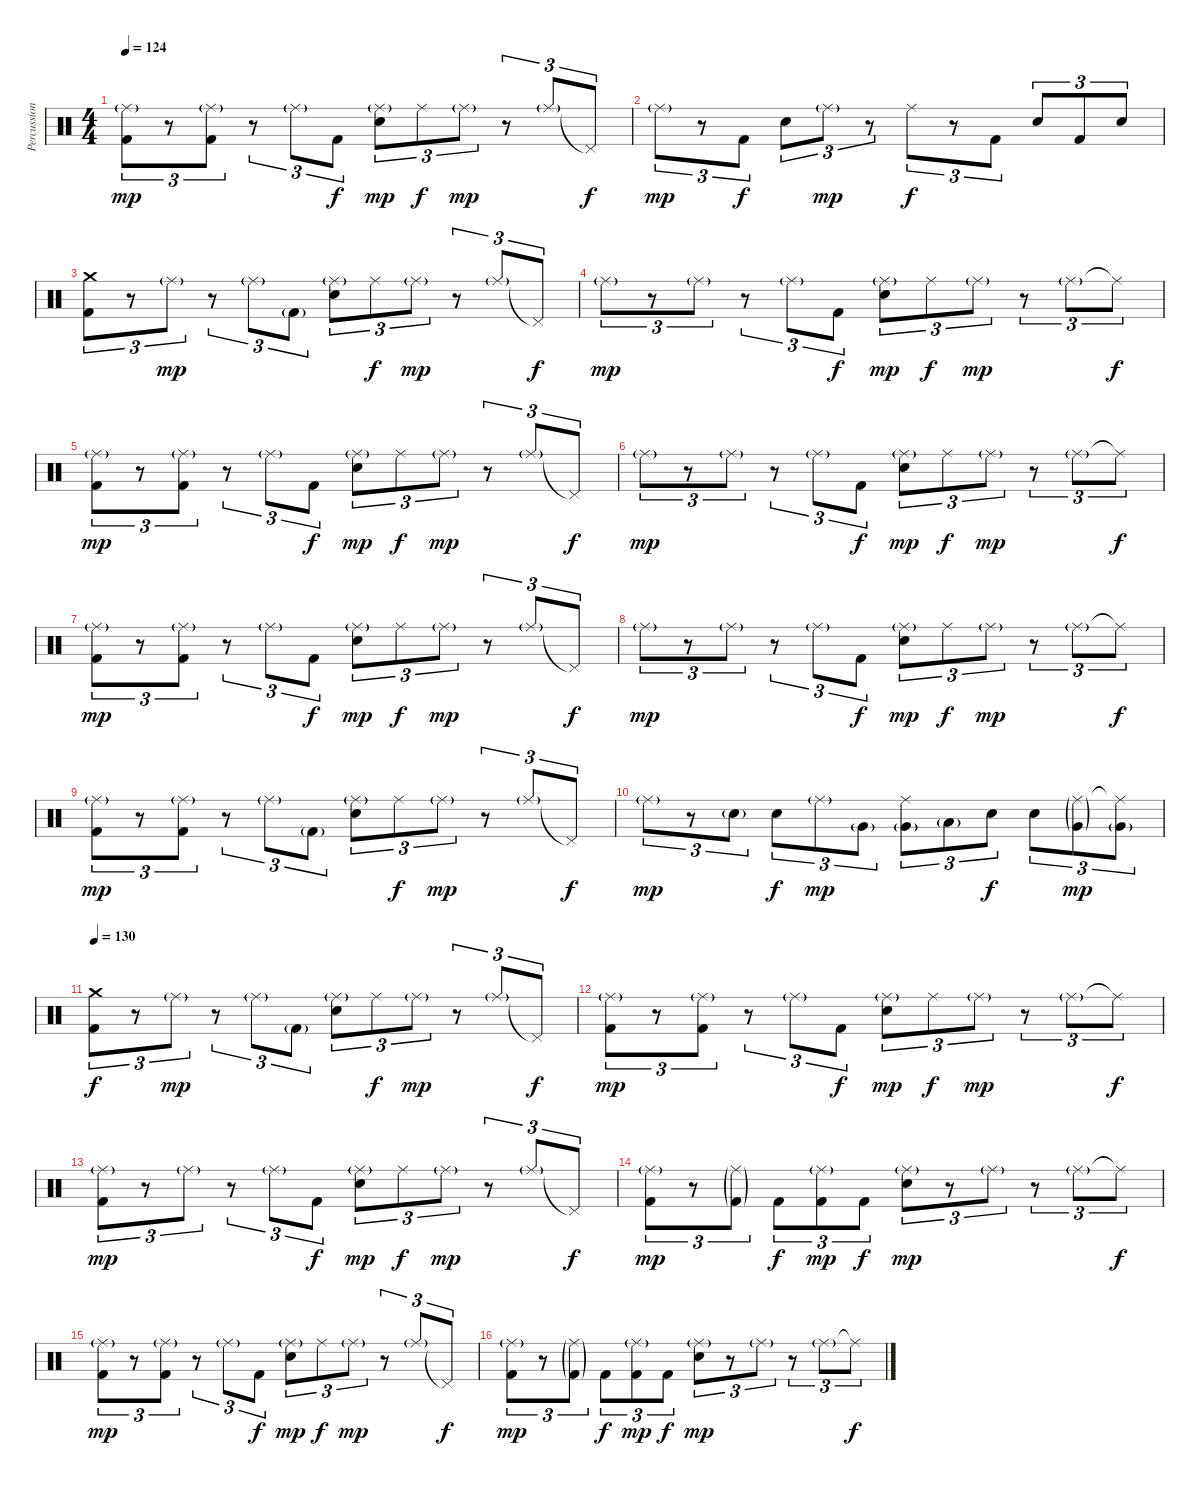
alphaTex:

\track ("Percussions" "Percussion") {instrument percussion}
\staff {score}
\articulation defaults
\ts (4 4)
\tempo 124
\clef neutral
\ks c
("Ride (middle)"{g} "Kick (hit) 2").8{tu (3 2) dy mp} r.8{tu (3 2)} ("Ride (middle)"{g} "Kick (hit) 2").8{tu (3 2)} r.8{tu (3 2)} "Ride (middle)"{g}.8{tu (3 2)} "Kick (hit) 2".8{tu (3 2) dy f} ("Ride (middle)"{g} "Electric Snare (hit)").8{tu (3 2) dy mp} "Ride (middle)".8{tu (3 2) dy f} "Ride (middle)"{g}.8{tu (3 2) dy mp} r.8{tu (3 2)} "Ride (middle)"{g}.8{tu (3 2)} "Pedal Hi-Hat (hit)"{t}.8{tu (3 2) dy f} |
"Ride (middle)"{g}.8{tu (3 2) dy mp} r.8{tu (3 2)} "Kick (hit) 2".8{tu (3 2) dy f} "Electric Snare (hit)".8{tu (3 2)} "Ride (middle)"{g}.8{tu (3 2) dy mp} r.8{tu (3 2)} "Ride (middle)".8{tu (3 2) dy f} r.8{tu (3 2)} "Kick (hit) 2".8{tu (3 2)} "Electric Snare (hit)".8{tu (3 2)} "Kick (hit) 2".8{tu (3 2)} "Electric Snare (hit)".8{tu (3 2)} |
("Crash medium (hit)" "Kick (hit) 2").8{tu (3 2)} r.8{tu (3 2)} "Ride (middle)"{g}.8{tu (3 2) dy mp} r.8{tu (3 2)} "Ride (middle)"{g}.8{tu (3 2)} "Kick (hit) 2"{g}.8{tu (3 2)} ("Ride (middle)"{g} "Electric Snare (hit)").8{tu (3 2)} "Ride (middle)".8{tu (3 2) dy f} "Ride (middle)"{g}.8{tu (3 2) dy mp} r.8{tu (3 2)} "Ride (middle)"{g}.8{tu (3 2)} "Pedal Hi-Hat (hit)"{t}.8{tu (3 2) dy f} |
"Ride (middle)"{g}.8{tu (3 2) dy mp} r.8{tu (3 2)} "Ride (middle)"{g}.8{tu (3 2)} r.8{tu (3 2)} "Ride (middle)"{g}.8{tu (3 2)} "Kick (hit) 2".8{tu (3 2) dy f} ("Ride (middle)"{g} "Electric Snare (hit)").8{tu (3 2) dy mp} "Ride (middle)".8{tu (3 2) dy f} "Ride (middle)"{g}.8{tu (3 2) dy mp} r.8{tu (3 2)} "Ride (middle)"{g}.8{tu (3 2)} "Ride (middle)"{t}.8{tu (3 2) dy f} |
("Ride (middle)"{g} "Kick (hit) 2").8{tu (3 2) dy mp} r.8{tu (3 2)} ("Ride (middle)"{g} "Kick (hit) 2").8{tu (3 2)} r.8{tu (3 2)} "Ride (middle)"{g}.8{tu (3 2)} "Kick (hit) 2".8{tu (3 2) dy f} ("Ride (middle)"{g} "Electric Snare (hit)").8{tu (3 2) dy mp} "Ride (middle)".8{tu (3 2) dy f} "Ride (middle)"{g}.8{tu (3 2) dy mp} r.8{tu (3 2)} "Ride (middle)"{g}.8{tu (3 2)} "Pedal Hi-Hat (hit)"{t}.8{tu (3 2) dy f} |
"Ride (middle)"{g}.8{tu (3 2) dy mp} r.8{tu (3 2)} "Ride (middle)"{g}.8{tu (3 2)} r.8{tu (3 2)} "Ride (middle)"{g}.8{tu (3 2)} "Kick (hit) 2".8{tu (3 2) dy f} ("Ride (middle)"{g} "Electric Snare (hit)").8{tu (3 2) dy mp} "Ride (middle)".8{tu (3 2) dy f} "Ride (middle)"{g}.8{tu (3 2) dy mp} r.8{tu (3 2)} "Ride (middle)"{g}.8{tu (3 2)} "Ride (middle)"{t}.8{tu (3 2) dy f} |
("Ride (middle)"{g} "Kick (hit) 2").8{tu (3 2) dy mp} r.8{tu (3 2)} ("Ride (middle)"{g} "Kick (hit) 2").8{tu (3 2)} r.8{tu (3 2)} "Ride (middle)"{g}.8{tu (3 2)} "Kick (hit) 2".8{tu (3 2) dy f} ("Ride (middle)"{g} "Electric Snare (hit)").8{tu (3 2) dy mp} "Ride (middle)".8{tu (3 2) dy f} "Ride (middle)"{g}.8{tu (3 2) dy mp} r.8{tu (3 2)} "Ride (middle)"{g}.8{tu (3 2)} "Pedal Hi-Hat (hit)"{t}.8{tu (3 2) dy f} |
"Ride (middle)"{g}.8{tu (3 2) dy mp} r.8{tu (3 2)} "Ride (middle)"{g}.8{tu (3 2)} r.8{tu (3 2)} "Ride (middle)"{g}.8{tu (3 2)} "Kick (hit) 2".8{tu (3 2) dy f} ("Ride (middle)"{g} "Electric Snare (hit)").8{tu (3 2) dy mp} "Ride (middle)".8{tu (3 2) dy f} "Ride (middle)"{g}.8{tu (3 2) dy mp} r.8{tu (3 2)} "Ride (middle)"{g}.8{tu (3 2)} "Ride (middle)"{t}.8{tu (3 2) dy f} |
("Ride (middle)"{g} "Kick (hit) 2").8{tu (3 2) dy mp} r.8{tu (3 2)} ("Ride (middle)"{g} "Kick (hit) 2").8{tu (3 2)} r.8{tu (3 2)} "Ride (middle)"{g}.8{tu (3 2)} "Kick (hit) 2"{g}.8{tu (3 2)} ("Ride (middle)"{g} "Electric Snare (hit)").8{tu (3 2)} "Ride (middle)".8{tu (3 2) dy f} "Ride (middle)"{g}.8{tu (3 2) dy mp} r.8{tu (3 2)} "Ride (middle)"{g}.8{tu (3 2)} "Pedal Hi-Hat (hit)"{t}.8{tu (3 2) dy f} |
"Ride (middle)"{g}.8{tu (3 2) dy mp} r.8{tu (3 2)} "Electric Snare (hit)"{g}.8{tu (3 2)} "Electric Snare (hit)".8{tu (3 2) dy f} "Ride (middle)"{g}.8{tu (3 2) dy mp} "Very Low Tom (hit)"{g}.8{tu (3 2)} ("Ride (middle)" "Very Low Tom (hit)"{g}).8{tu (3 2)} "Low Floor Tom (hit)"{g}.8{tu (3 2)} "Electric Snare (hit)".8{tu (3 2) dy f} "Electric Snare (hit)".8{tu (3 2)} ("Ride (middle)"{g} "Very Low Tom (hit)"{g}).8{tu (3 2) dy mp} ("Ride (middle)"{t} "Very Low Tom (hit)"{g}).8{tu (3 2)} |
\tempo 130
("Crash medium (hit)" "Kick (hit) 2").8{tu (3 2) dy f} r.8{tu (3 2)} "Ride (middle)"{g}.8{tu (3 2) dy mp} r.8{tu (3 2)} "Ride (middle)"{g}.8{tu (3 2)} "Kick (hit) 2"{g}.8{tu (3 2)} ("Ride (middle)"{g} "Electric Snare (hit)").8{tu (3 2)} "Ride (middle)".8{tu (3 2) dy f} "Ride (middle)"{g}.8{tu (3 2) dy mp} r.8{tu (3 2)} "Ride (middle)"{g}.8{tu (3 2)} "Pedal Hi-Hat (hit)"{t}.8{tu (3 2) dy f} |
("Ride (middle)"{g} "Kick (hit) 2").8{tu (3 2) dy mp} r.8{tu (3 2)} ("Ride (middle)"{g} "Kick (hit) 2").8{tu (3 2)} r.8{tu (3 2)} "Ride (middle)"{g}.8{tu (3 2)} "Kick (hit) 2".8{tu (3 2) dy f} ("Ride (middle)"{g} "Electric Snare (hit)").8{tu (3 2) dy mp} "Ride (middle)".8{tu (3 2) dy f} "Ride (middle)"{g}.8{tu (3 2) dy mp} r.8{tu (3 2)} "Ride (middle)"{g}.8{tu (3 2)} "Ride (middle)"{t}.8{tu (3 2) dy f} |
("Ride (middle)"{g} "Kick (hit) 2").8{tu (3 2) dy mp} r.8{tu (3 2)} "Ride (middle)"{g}.8{tu (3 2)} r.8{tu (3 2)} "Ride (middle)"{g}.8{tu (3 2)} "Kick (hit) 2".8{tu (3 2) dy f} ("Ride (middle)"{g} "Electric Snare (hit)").8{tu (3 2) dy mp} "Ride (middle)".8{tu (3 2) dy f} "Ride (middle)"{g}.8{tu (3 2) dy mp} r.8{tu (3 2)} "Ride (middle)"{g}.8{tu (3 2)} "Pedal Hi-Hat (hit)"{t}.8{tu (3 2) dy f} |
("Ride (middle)"{g} "Kick (hit) 2").8{tu (3 2) dy mp} r.8{tu (3 2)} ("Ride (middle)"{g} "Kick (hit) 2"{g}).8{tu (3 2)} "Kick (hit) 2".8{tu (3 2) dy f} ("Ride (middle)"{g} "Kick (hit) 2").8{tu (3 2) dy mp} "Kick (hit) 2".8{tu (3 2) dy f} ("Ride (middle)"{g} "Electric Snare (hit)").8{tu (3 2) dy mp} r.8{tu (3 2)} "Ride (middle)"{g}.8{tu (3 2)} r.8{tu (3 2)} "Ride (middle)"{g}.8{tu (3 2)} "Ride (middle)"{t}.8{tu (3 2) dy f} |
("Ride (middle)"{g} "Kick (hit) 2").8{tu (3 2) dy mp} r.8{tu (3 2)} ("Ride (middle)"{g} "Kick (hit) 2").8{tu (3 2)} r.8{tu (3 2)} "Ride (middle)"{g}.8{tu (3 2)} "Kick (hit) 2".8{tu (3 2) dy f} ("Ride (middle)"{g} "Electric Snare (hit)").8{tu (3 2) dy mp} "Ride (middle)".8{tu (3 2) dy f} "Ride (middle)"{g}.8{tu (3 2) dy mp} r.8{tu (3 2)} "Ride (middle)"{g}.8{tu (3 2)} "Pedal Hi-Hat (hit)"{t}.8{tu (3 2) dy f} |
("Ride (middle)"{g} "Kick (hit) 2").8{tu (3 2) dy mp} r.8{tu (3 2)} ("Ride (middle)"{g} "Kick (hit) 2"{g}).8{tu (3 2)} "Kick (hit) 2".8{tu (3 2) dy f} ("Ride (middle)"{g} "Kick (hit) 2").8{tu (3 2) dy mp} "Kick (hit) 2".8{tu (3 2) dy f} ("Ride (middle)"{g} "Electric Snare (hit)").8{tu (3 2) dy mp} r.8{tu (3 2)} "Ride (middle)"{g}.8{tu (3 2)} r.8{tu (3 2)} "Ride (middle)"{g}.8{tu (3 2)} "Ride (middle)"{t}.8{tu (3 2) dy f}
